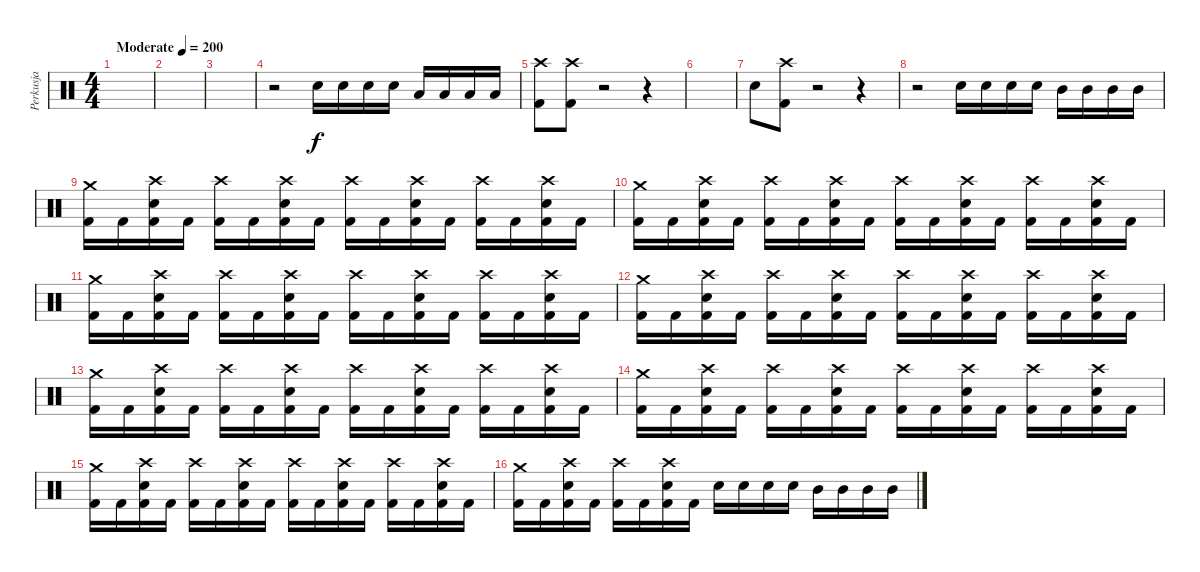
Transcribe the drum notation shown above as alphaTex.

\track ("Perkusja" "Perkusja") {instrument percussion}
\staff {score}
\articulation defaults
\ts (4 4)
\tempo (200 "Moderate")
\clef neutral
\ks c
|
|
|
r.2 "Snare (hit) 2".16 "Snare (hit) 2".16 "Snare (hit) 2".16 "Snare (hit) 2".16 "Low Tom (hit)".16 "Low Tom (hit)".16 "Low Tom (hit)".16 "Low Tom (hit)".16 |
("Crash high (hit)" "Kick (hit) 2").8 ("Crash high (hit)" "Kick (hit) 2").8 r.2 r.4 |
|
"Snare (hit) 2".8 ("Crash high (hit)" "Kick (hit) 2").8 r.2 r.4 |
r.2 "Snare (hit) 2".16 "Snare (hit) 2".16 "Snare (hit) 2".16 "Snare (hit) 2".16 "Mid Tom (hit)".16 "Mid Tom (hit)".16 "Mid Tom (hit)".16 "Mid Tom (hit)".16 |
("Crash medium (hit)" "Kick (hit) 2").16 "Kick (hit) 2".16 ("Crash high (hit)" "Snare (hit) 2" "Kick (hit) 2").16 "Kick (hit) 2".16 ("Crash high (hit)" "Kick (hit) 2").16 "Kick (hit) 2".16 ("Crash high (hit)" "Snare (hit) 2" "Kick (hit) 2").16 "Kick (hit) 2".16 ("Crash high (hit)" "Kick (hit) 2").16 "Kick (hit) 2".16 ("Crash high (hit)" "Snare (hit) 2" "Kick (hit) 2").16 "Kick (hit) 2".16 ("Crash high (hit)" "Kick (hit) 2").16 "Kick (hit) 2".16 ("Crash high (hit)" "Snare (hit) 2" "Kick (hit) 2").16 "Kick (hit) 2".16 |
("Crash medium (hit)" "Kick (hit) 2").16 "Kick (hit) 2".16 ("Crash high (hit)" "Snare (hit) 2" "Kick (hit) 2").16 "Kick (hit) 2".16 ("Crash high (hit)" "Kick (hit) 2").16 "Kick (hit) 2".16 ("Crash high (hit)" "Snare (hit) 2" "Kick (hit) 2").16 "Kick (hit) 2".16 ("Crash high (hit)" "Kick (hit) 2").16 "Kick (hit) 2".16 ("Crash high (hit)" "Snare (hit) 2" "Kick (hit) 2").16 "Kick (hit) 2".16 ("Crash high (hit)" "Kick (hit) 2").16 "Kick (hit) 2".16 ("Crash high (hit)" "Snare (hit) 2" "Kick (hit) 2").16 "Kick (hit) 2".16 |
("Crash medium (hit)" "Kick (hit) 2").16 "Kick (hit) 2".16 ("Crash high (hit)" "Snare (hit) 2" "Kick (hit) 2").16 "Kick (hit) 2".16 ("Crash high (hit)" "Kick (hit) 2").16 "Kick (hit) 2".16 ("Crash high (hit)" "Snare (hit) 2" "Kick (hit) 2").16 "Kick (hit) 2".16 ("Crash high (hit)" "Kick (hit) 2").16 "Kick (hit) 2".16 ("Crash high (hit)" "Snare (hit) 2" "Kick (hit) 2").16 "Kick (hit) 2".16 ("Crash high (hit)" "Kick (hit) 2").16 "Kick (hit) 2".16 ("Crash high (hit)" "Snare (hit) 2" "Kick (hit) 2").16 "Kick (hit) 2".16 |
("Crash medium (hit)" "Kick (hit) 2").16 "Kick (hit) 2".16 ("Crash high (hit)" "Snare (hit) 2" "Kick (hit) 2").16 "Kick (hit) 2".16 ("Crash high (hit)" "Kick (hit) 2").16 "Kick (hit) 2".16 ("Crash high (hit)" "Snare (hit) 2" "Kick (hit) 2").16 "Kick (hit) 2".16 ("Crash high (hit)" "Kick (hit) 2").16 "Kick (hit) 2".16 ("Crash high (hit)" "Snare (hit) 2" "Kick (hit) 2").16 "Kick (hit) 2".16 ("Crash high (hit)" "Kick (hit) 2").16 "Kick (hit) 2".16 ("Crash high (hit)" "Snare (hit) 2" "Kick (hit) 2").16 "Kick (hit) 2".16 |
("Crash medium (hit)" "Kick (hit) 2").16 "Kick (hit) 2".16 ("Crash high (hit)" "Snare (hit) 2" "Kick (hit) 2").16 "Kick (hit) 2".16 ("Crash high (hit)" "Kick (hit) 2").16 "Kick (hit) 2".16 ("Crash high (hit)" "Snare (hit) 2" "Kick (hit) 2").16 "Kick (hit) 2".16 ("Crash high (hit)" "Kick (hit) 2").16 "Kick (hit) 2".16 ("Crash high (hit)" "Snare (hit) 2" "Kick (hit) 2").16 "Kick (hit) 2".16 ("Crash high (hit)" "Kick (hit) 2").16 "Kick (hit) 2".16 ("Crash high (hit)" "Snare (hit) 2" "Kick (hit) 2").16 "Kick (hit) 2".16 |
("Crash medium (hit)" "Kick (hit) 2").16 "Kick (hit) 2".16 ("Crash high (hit)" "Snare (hit) 2" "Kick (hit) 2").16 "Kick (hit) 2".16 ("Crash high (hit)" "Kick (hit) 2").16 "Kick (hit) 2".16 ("Crash high (hit)" "Snare (hit) 2" "Kick (hit) 2").16 "Kick (hit) 2".16 ("Crash high (hit)" "Kick (hit) 2").16 "Kick (hit) 2".16 ("Crash high (hit)" "Snare (hit) 2" "Kick (hit) 2").16 "Kick (hit) 2".16 ("Crash high (hit)" "Kick (hit) 2").16 "Kick (hit) 2".16 ("Crash high (hit)" "Snare (hit) 2" "Kick (hit) 2").16 "Kick (hit) 2".16 |
("Crash medium (hit)" "Kick (hit) 2").16 "Kick (hit) 2".16 ("Crash high (hit)" "Snare (hit) 2" "Kick (hit) 2").16 "Kick (hit) 2".16 ("Crash high (hit)" "Kick (hit) 2").16 "Kick (hit) 2".16 ("Crash high (hit)" "Snare (hit) 2" "Kick (hit) 2").16 "Kick (hit) 2".16 ("Crash high (hit)" "Kick (hit) 2").16 "Kick (hit) 2".16 ("Crash high (hit)" "Snare (hit) 2" "Kick (hit) 2").16 "Kick (hit) 2".16 ("Crash high (hit)" "Kick (hit) 2").16 "Kick (hit) 2".16 ("Crash high (hit)" "Snare (hit) 2" "Kick (hit) 2").16 "Kick (hit) 2".16 |
("Crash medium (hit)" "Kick (hit) 2").16 "Kick (hit) 2".16 ("Crash high (hit)" "Snare (hit) 2" "Kick (hit) 2").16 "Kick (hit) 2".16 ("Crash high (hit)" "Kick (hit) 2").16 "Kick (hit) 2".16 ("Crash high (hit)" "Snare (hit) 2" "Kick (hit) 2").16 "Kick (hit) 2".16 "Snare (hit) 2".16 "Snare (hit) 2".16 "Snare (hit) 2".16 "Snare (hit) 2".16 "Mid Tom (hit)".16 "Mid Tom (hit)".16 "Mid Tom (hit)".16 "Mid Tom (hit)".16
